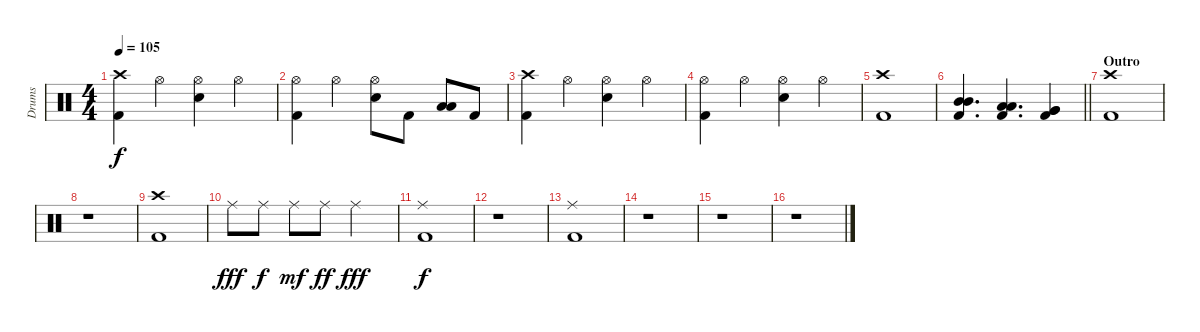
\track ("Drums" "Drums") {instrument percussion}
\staff {score}
\articulation defaults
\ts (4 4)
\tempo 105
\clef neutral
\ks c
("Crash high (hit)" "Kick (hit) 2").4{dy f} "Hi-Hat (open)".4 ("Hi-Hat (open)" "Electric Snare (hit)").4 "Hi-Hat (open)".4 |
("Hi-Hat (open)" "Kick (hit) 2").4 "Hi-Hat (open)".4 ("Hi-Hat (open)" "Electric Snare (hit)").8 "Kick (hit) 2".8 ("Low Tom (hit)" "Low Tom (hit)").8{bu 60} "Kick (hit) 2".8 |
("Crash high (hit)" "Kick (hit) 2").4 "Hi-Hat (open)".4 ("Hi-Hat (open)" "Electric Snare (hit)").4 "Hi-Hat (open)".4 |
("Hi-Hat (open)" "Kick (hit) 2").4 "Hi-Hat (open)".4 ("Hi-Hat (open)" "Electric Snare (hit)").4 "Hi-Hat (open)".4 |
("Crash high (hit)" "Kick (hit) 2").1 |
\barLineRight lightlight
("Mid Tom (hit)" "Mid Tom (hit)" "Kick (hit) 2").4{d bu 60} ("Low Tom (hit)" "Low Tom (hit)" "Kick (hit) 2").4{d bu 60} ("Very Low Tom (hit)" "Very Low Tom (hit)" "Kick (hit) 2").4{bu 60} |
\section ("" "Outro")
("Crash high (hit)" "Kick (hit) 2").1 |
r.1 |
("Crash high (hit)" "Kick (hit) 2").1 |
"Ride (middle)".8{dy fff} "Ride (middle)".8{dy f} "Ride (middle)".8{dy mf} "Ride (middle)".8{dy ff} "Ride (middle)".2{dy fff} |
("Ride (middle)" "Kick (hit) 2").1{dy f} |
r.1 |
("Ride (middle)" "Kick (hit) 2").1 |
r.1 |
r.1 |
r.1
